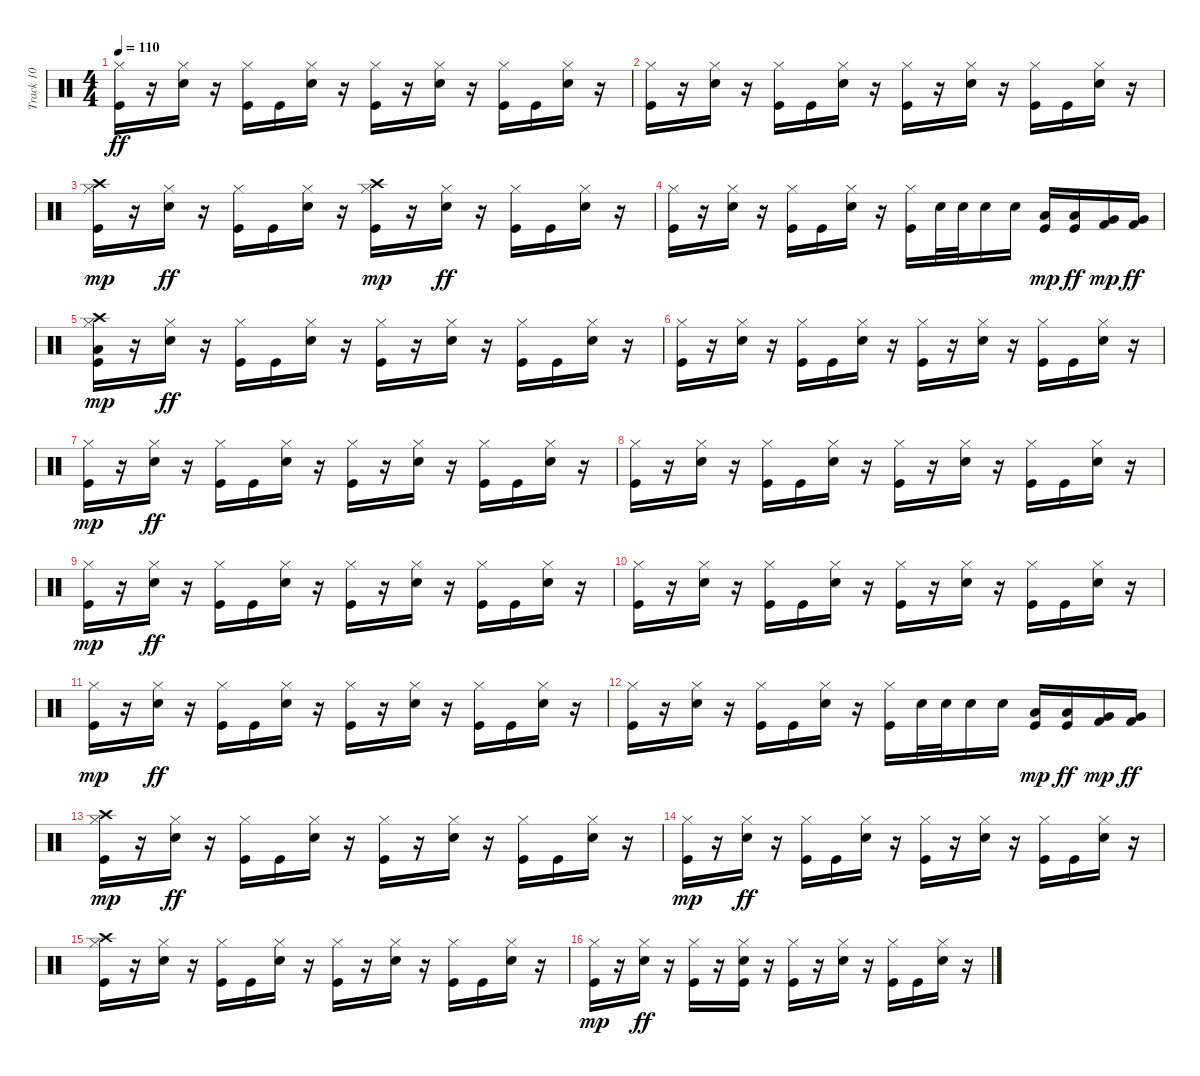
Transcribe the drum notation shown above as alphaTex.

\track ("Track 10" "Track 10") {instrument percussion}
\staff {score}
\articulation defaults
\ts (4 4)
\tempo 110
\clef neutral
\ks c
("Kick (hit)" "Hi-Hat (closed)").16{dy ff} r.16 ("Electric Snare (hit)" "Hi-Hat (closed)").16 r.16 ("Kick (hit)" "Hi-Hat (closed)").16 "Kick (hit)".16 ("Electric Snare (hit)" "Hi-Hat (closed)").16 r.16 ("Kick (hit)" "Hi-Hat (closed)").16 r.16 ("Electric Snare (hit)" "Hi-Hat (closed)").16 r.16 ("Kick (hit)" "Hi-Hat (closed)").16 "Kick (hit)".16 ("Electric Snare (hit)" "Hi-Hat (closed)").16 r.16 |
("Kick (hit)" "Hi-Hat (closed)").16 r.16 ("Electric Snare (hit)" "Hi-Hat (closed)").16 r.16 ("Kick (hit)" "Hi-Hat (closed)").16 "Kick (hit)".16 ("Electric Snare (hit)" "Hi-Hat (closed)").16 r.16 ("Kick (hit)" "Hi-Hat (closed)").16 r.16 ("Electric Snare (hit)" "Hi-Hat (closed)").16 r.16 ("Kick (hit)" "Hi-Hat (closed)").16 "Kick (hit)".16 ("Electric Snare (hit)" "Hi-Hat (closed)").16 r.16 |
("Kick (hit)" "Hi-Hat (closed)" "Crash high (hit)").16{dy mp} r.16 ("Electric Snare (hit)" "Hi-Hat (closed)").16{dy ff} r.16 ("Kick (hit)" "Hi-Hat (closed)").16 "Kick (hit)".16 ("Electric Snare (hit)" "Hi-Hat (closed)").16 r.16 ("Kick (hit)" "Hi-Hat (closed)" "Crash high (hit)").16{dy mp} r.16 ("Electric Snare (hit)" "Hi-Hat (closed)").16{dy ff} r.16 ("Kick (hit)" "Hi-Hat (closed)").16 "Kick (hit)".16 ("Electric Snare (hit)" "Hi-Hat (closed)").16 r.16 |
("Kick (hit)" "Hi-Hat (closed)").16 r.16 ("Electric Snare (hit)" "Hi-Hat (closed)").16 r.16 ("Kick (hit)" "Hi-Hat (closed)").16 "Kick (hit)".16 ("Electric Snare (hit)" "Hi-Hat (closed)").16 r.16 ("Hi-Hat (closed)" "Kick (hit)").16 "Electric Snare (hit)".32 "Electric Snare (hit)".32 "Electric Snare (hit)".16 "Electric Snare (hit)".16 ("Low Tom (hit)" "Kick (hit)").16{dy mp} ("Low Tom (hit)" "Kick (hit)").16{dy ff} ("Very Low Tom (hit)" "Kick (hit) 2").16{dy mp} ("Very Low Tom (hit)" "Kick (hit) 2").16{dy ff} |
("Kick (hit)" "Crash high (hit)" "Low Floor Tom (hit)" "Hi-Hat (closed)").16{dy mp} r.16 ("Electric Snare (hit)" "Hi-Hat (closed)").16{dy ff} r.16 ("Kick (hit)" "Hi-Hat (closed)").16 "Kick (hit)".16 ("Electric Snare (hit)" "Hi-Hat (closed)").16 r.16 ("Kick (hit)" "Hi-Hat (closed)").16 r.16 ("Electric Snare (hit)" "Hi-Hat (closed)").16 r.16 ("Kick (hit)" "Hi-Hat (closed)").16 "Kick (hit)".16 ("Electric Snare (hit)" "Hi-Hat (closed)").16 r.16 |
("Kick (hit)" "Hi-Hat (closed)").16 r.16 ("Electric Snare (hit)" "Hi-Hat (closed)").16 r.16 ("Kick (hit)" "Hi-Hat (closed)").16 "Kick (hit)".16 ("Electric Snare (hit)" "Hi-Hat (closed)").16 r.16 ("Kick (hit)" "Hi-Hat (closed)").16 r.16 ("Electric Snare (hit)" "Hi-Hat (closed)").16 r.16 ("Kick (hit)" "Hi-Hat (closed)").16 "Kick (hit)".16 ("Electric Snare (hit)" "Hi-Hat (closed)").16 r.16 |
("Kick (hit)" "Hi-Hat (closed)").16{dy mp} r.16 ("Electric Snare (hit)" "Hi-Hat (closed)").16{dy ff} r.16 ("Kick (hit)" "Hi-Hat (closed)").16 "Kick (hit)".16 ("Electric Snare (hit)" "Hi-Hat (closed)").16 r.16 ("Kick (hit)" "Hi-Hat (closed)").16 r.16 ("Electric Snare (hit)" "Hi-Hat (closed)").16 r.16 ("Kick (hit)" "Hi-Hat (closed)").16 "Kick (hit)".16 ("Electric Snare (hit)" "Hi-Hat (closed)").16 r.16 |
("Kick (hit)" "Hi-Hat (closed)").16 r.16 ("Electric Snare (hit)" "Hi-Hat (closed)").16 r.16 ("Hi-Hat (closed)" "Kick (hit)").16 "Kick (hit)".16 ("Electric Snare (hit)" "Hi-Hat (closed)").16 r.16 ("Kick (hit)" "Hi-Hat (closed)").16 r.16 ("Electric Snare (hit)" "Hi-Hat (closed)").16 r.16 ("Kick (hit)" "Hi-Hat (closed)").16 "Kick (hit)".16 ("Electric Snare (hit)" "Hi-Hat (closed)").16 r.16 |
("Kick (hit)" "Hi-Hat (closed)").16{dy mp} r.16 ("Electric Snare (hit)" "Hi-Hat (closed)").16{dy ff} r.16 ("Hi-Hat (closed)" "Kick (hit)").16 "Kick (hit)".16 ("Electric Snare (hit)" "Hi-Hat (closed)").16 r.16 ("Kick (hit)" "Hi-Hat (closed)").16 r.16 ("Electric Snare (hit)" "Hi-Hat (closed)").16 r.16 ("Kick (hit)" "Hi-Hat (closed)").16 "Kick (hit)".16 ("Electric Snare (hit)" "Hi-Hat (closed)").16 r.16 |
("Kick (hit)" "Hi-Hat (closed)").16 r.16 ("Electric Snare (hit)" "Hi-Hat (closed)").16 r.16 ("Kick (hit)" "Hi-Hat (closed)").16 "Kick (hit)".16 ("Electric Snare (hit)" "Hi-Hat (closed)").16 r.16 ("Kick (hit)" "Hi-Hat (closed)").16 r.16 ("Electric Snare (hit)" "Hi-Hat (closed)").16 r.16 ("Kick (hit)" "Hi-Hat (closed)").16 "Kick (hit)".16 ("Electric Snare (hit)" "Hi-Hat (closed)").16 r.16 |
("Kick (hit)" "Hi-Hat (closed)").16{dy mp} r.16 ("Electric Snare (hit)" "Hi-Hat (closed)").16{dy ff} r.16 ("Kick (hit)" "Hi-Hat (closed)").16 "Kick (hit)".16 ("Electric Snare (hit)" "Hi-Hat (closed)").16 r.16 ("Kick (hit)" "Hi-Hat (closed)").16 r.16 ("Electric Snare (hit)" "Hi-Hat (closed)").16 r.16 ("Kick (hit)" "Hi-Hat (closed)").16 "Kick (hit)".16 ("Electric Snare (hit)" "Hi-Hat (closed)").16 r.16 |
("Kick (hit)" "Hi-Hat (closed)").16 r.16 ("Electric Snare (hit)" "Hi-Hat (closed)").16 r.16 ("Kick (hit)" "Hi-Hat (closed)").16 "Kick (hit)".16 ("Electric Snare (hit)" "Hi-Hat (closed)").16 r.16 ("Kick (hit)" "Hi-Hat (closed)").16 "Electric Snare (hit)".32 "Electric Snare (hit)".32 "Electric Snare (hit)".16 "Electric Snare (hit)".16 ("Low Tom (hit)" "Kick (hit)").16{dy mp} ("Low Tom (hit)" "Kick (hit)").16{dy ff} ("Very Low Tom (hit)" "Kick (hit) 2").16{dy mp} ("Very Low Tom (hit)" "Kick (hit) 2").16{dy ff} |
("Kick (hit)" "Hi-Hat (closed)" "Crash high (hit)").16{dy mp} r.16 ("Electric Snare (hit)" "Hi-Hat (closed)").16{dy ff} r.16 ("Kick (hit)" "Hi-Hat (closed)").16 "Kick (hit)".16 ("Electric Snare (hit)" "Hi-Hat (closed)").16 r.16 ("Kick (hit)" "Hi-Hat (closed)").16 r.16 ("Electric Snare (hit)" "Hi-Hat (closed)").16 r.16 ("Kick (hit)" "Hi-Hat (closed)").16 "Kick (hit)".16 ("Electric Snare (hit)" "Hi-Hat (closed)").16 r.16 |
("Kick (hit)" "Hi-Hat (closed)").16{dy mp} r.16 ("Electric Snare (hit)" "Hi-Hat (closed)").16{dy ff} r.16 ("Kick (hit)" "Hi-Hat (closed)").16 "Kick (hit)".16 ("Electric Snare (hit)" "Hi-Hat (closed)").16 r.16 ("Kick (hit)" "Hi-Hat (closed)").16 r.16 ("Electric Snare (hit)" "Hi-Hat (closed)").16 r.16 ("Kick (hit)" "Hi-Hat (closed)").16 "Kick (hit)".16 ("Electric Snare (hit)" "Hi-Hat (closed)").16 r.16 |
("Hi-Hat (closed)" "Crash high (hit)" "Kick (hit)").16 r.16 ("Electric Snare (hit)" "Hi-Hat (closed)").16 r.16 ("Kick (hit)" "Hi-Hat (closed)").16 "Kick (hit)".16 ("Electric Snare (hit)" "Hi-Hat (closed)").16 r.16 ("Kick (hit)" "Hi-Hat (closed)").16 r.16 ("Electric Snare (hit)" "Hi-Hat (closed)").16 r.16 ("Kick (hit)" "Hi-Hat (closed)").16 "Kick (hit)".16 ("Electric Snare (hit)" "Hi-Hat (closed)").16 r.16 |
("Kick (hit)" "Hi-Hat (closed)").16{dy mp} r.16 ("Electric Snare (hit)" "Hi-Hat (closed)").16{dy ff} r.16 ("Kick (hit)" "Hi-Hat (closed)").16 r.16 ("Electric Snare (hit)" "Hi-Hat (closed)" "Kick (hit)").16 r.16 ("Kick (hit)" "Hi-Hat (closed)").16 r.16 ("Electric Snare (hit)" "Hi-Hat (closed)").16 r.16 ("Kick (hit)" "Hi-Hat (closed)").16 "Kick (hit)".16 ("Electric Snare (hit)" "Hi-Hat (closed)").16 r.16
